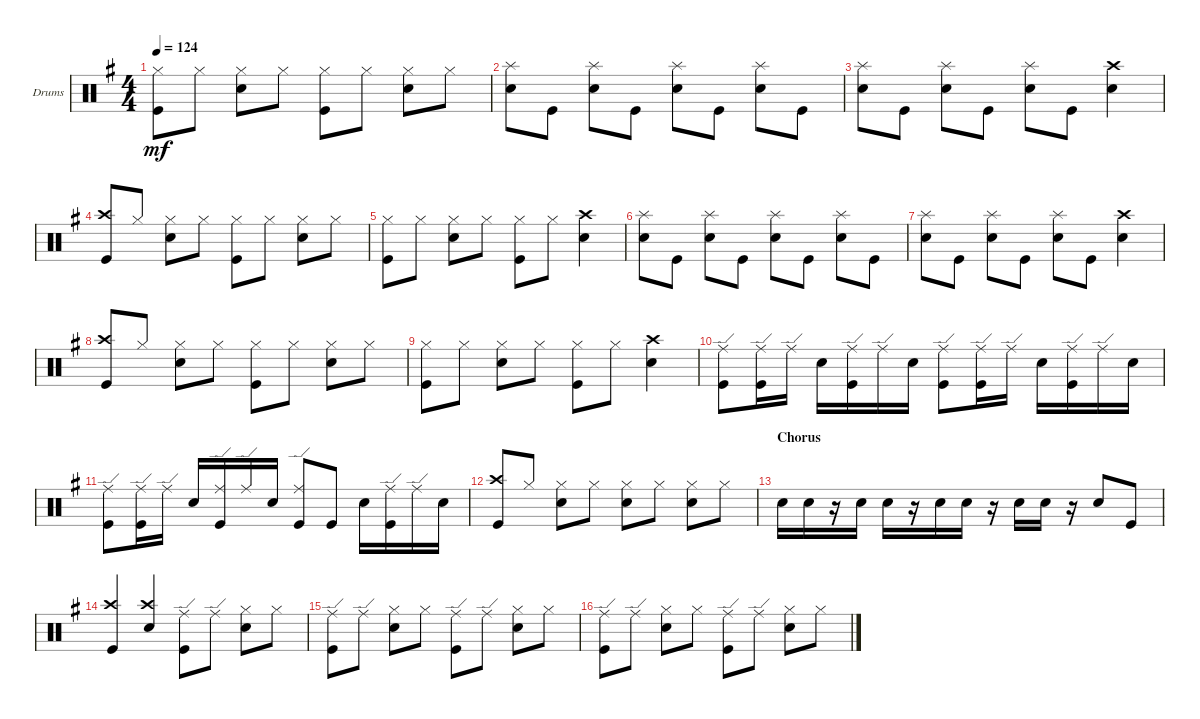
\defaultSystemsLayout 4
\bracketExtendMode groupsimilarinstruments
\firstSystemTrackNameOrientation horizontal
\otherSystemsTrackNameOrientation horizontal
\track ("PETER CRISS" "Drums") {instrument percussion}
\staff {score}
\articulation defaults
\ts (4 4)
\tempo 124
\clef neutral
\scale
0.333333
\ks g
("Hi-Hat (closed)" "Kick (hit)").8{dy mf} "Hi-Hat (closed)".8 ("Hi-Hat (closed)" "Snare (hit) 2").8 "Hi-Hat (closed)".8 ("Hi-Hat (closed)" "Kick (hit)").8 "Hi-Hat (closed)".8 ("Hi-Hat (closed)" "Snare (hit) 2").8 "Hi-Hat (closed)".8 |
\scale
0.333333 ("Splash (hit)" "Snare (hit) 2").8 "Kick (hit)".8 ("Splash (hit)" "Snare (hit) 2").8 "Kick (hit)".8 ("Splash (hit)" "Snare (hit) 2").8 "Kick (hit)".8 ("Splash (hit)" "Snare (hit) 2").8 "Kick (hit)".8 |
\scale
0.333333 ("Splash (hit)" "Snare (hit) 2").8 "Kick (hit)".8 ("Splash (hit)" "Snare (hit) 2").8 "Kick (hit)".8 ("Splash (hit)" "Snare (hit) 2").8 "Kick (hit)".8 ("Crash high (hit)" "Snare (hit) 2").4 |
\scale
0.333333 ("Crash high (hit)" "Kick (hit)").8{beam invert} "Hi-Hat (closed)".8 ("Snare (hit) 2" "Hi-Hat (closed)").8 "Hi-Hat (closed)".8 ("Hi-Hat (closed)" "Kick (hit)").8 "Hi-Hat (closed)".8 ("Snare (hit) 2" "Hi-Hat (closed)").8 "Hi-Hat (closed)".8 |
\scale
0.333333 ("Hi-Hat (closed)" "Kick (hit)").8 "Hi-Hat (closed)".8 ("Hi-Hat (closed)" "Snare (hit) 2").8 "Hi-Hat (closed)".8 ("Hi-Hat (closed)" "Kick (hit)").8 "Hi-Hat (closed)".8 ("Crash high (hit)" "Snare (hit) 2").4 |
\scale
0.333333 ("Splash (hit)" "Snare (hit) 2").8 "Kick (hit)".8 ("Splash (hit)" "Snare (hit) 2").8 "Kick (hit)".8 ("Splash (hit)" "Snare (hit) 2").8 "Kick (hit)".8 ("Splash (hit)" "Snare (hit) 2").8 "Kick (hit)".8 |
\scale
0.333333 ("Splash (hit)" "Snare (hit) 2").8 "Kick (hit)".8 ("Splash (hit)" "Snare (hit) 2").8 "Kick (hit)".8 ("Splash (hit)" "Snare (hit) 2").8 "Kick (hit)".8 ("Crash high (hit)" "Snare (hit) 2").4 |
\scale
0.333333 ("Crash high (hit)" "Kick (hit)").8{beam invert} "Hi-Hat (closed)".8 ("Hi-Hat (closed)" "Snare (hit) 2").8 "Hi-Hat (closed)".8 ("Hi-Hat (closed)" "Kick (hit)").8 "Hi-Hat (closed)".8 ("Hi-Hat (closed)" "Snare (hit) 2").8 "Hi-Hat (closed)".8 |
\scale
0.333333 ("Hi-Hat (closed)" "Kick (hit)").8 "Hi-Hat (closed)".8 ("Hi-Hat (closed)" "Snare (hit) 2").8 "Hi-Hat (closed)".8 ("Hi-Hat (closed)" "Kick (hit)").8 "Hi-Hat (closed)".8 ("Snare (hit) 2" "Crash high (hit)").4 |
\scale
0.333333 ("Ride (edge)" "Kick (hit)").8 ("Ride (edge)" "Kick (hit)").16 "Ride (edge)".16 "Snare (hit) 2".16 ("Kick (hit)" "Ride (edge)").16 "Ride (edge)".16 "Snare (hit) 2".16 ("Ride (edge)" "Kick (hit)").8 ("Ride (edge)" "Kick (hit)").16 "Ride (edge)".16 "Snare (hit) 2".16 ("Kick (hit)" "Ride (edge)").16 "Ride (edge)".16 "Snare (hit) 2".16 |
\scale
0.333333 ("Ride (edge)" "Kick (hit)").8 ("Ride (edge)" "Kick (hit)").16 "Ride (edge)".16 "Snare (hit) 2".16 ("Kick (hit)" "Ride (edge)").16 "Ride (edge)".16 "Snare (hit) 2".16 ("Ride (edge)" "Kick (hit)").8{beam invert} "Kick (hit)".8 "Snare (hit) 2".16 ("Kick (hit)" "Ride (edge)").16 "Ride (edge)".16 "Snare (hit) 2".16 |
\scale
0.333333 ("Crash high (hit)" "Kick (hit)").8{beam invert} "Hi-Hat (closed)".8 ("Hi-Hat (closed)" "Snare (hit) 2").8 "Hi-Hat (closed)".8 ("Hi-Hat (closed)" "Snare (hit) 2").8 "Hi-Hat (closed)".8 ("Hi-Hat (closed)" "Snare (hit) 2").8 "Hi-Hat (closed)".8 |
\section ("" "Chorus")
\scale
0.333333 "Snare (hit) 2".16 "Snare (hit) 2".16 r.16 "Snare (hit) 2".16 "Snare (hit) 2".16 r.16 "Snare (hit) 2".16 "Snare (hit) 2".16 r.16 "Snare (hit) 2".16 "Snare (hit) 2".16 r.16 "Snare (hit) 2".8 "Kick (hit)".8 |
\scale
0.333333 ("Crash high (hit)" "Kick (hit)").4 ("Crash high (hit)" "Snare (hit) 2").4{beam invert} ("Ride (edge)" "Kick (hit)").8 "Ride (edge)".8 ("Snare (hit) 2" "Hi-Hat (closed)").8 "Hi-Hat (closed)".8 |
\scale
0.333333 ("Ride (edge)" "Kick (hit)").8 "Ride (edge)".8 ("Snare (hit) 2" "Hi-Hat (closed)").8 "Hi-Hat (closed)".8 ("Ride (edge)" "Kick (hit)").8 "Ride (edge)".8 ("Snare (hit) 2" "Hi-Hat (closed)").8 "Hi-Hat (closed)".8 |
\scale
0.333333 ("Ride (edge)" "Kick (hit)").8 "Ride (edge)".8 ("Snare (hit) 2" "Hi-Hat (closed)").8 "Hi-Hat (closed)".8 ("Ride (edge)" "Kick (hit)").8 "Ride (edge)".8 ("Snare (hit) 2" "Hi-Hat (closed)").8 "Hi-Hat (closed)".8
